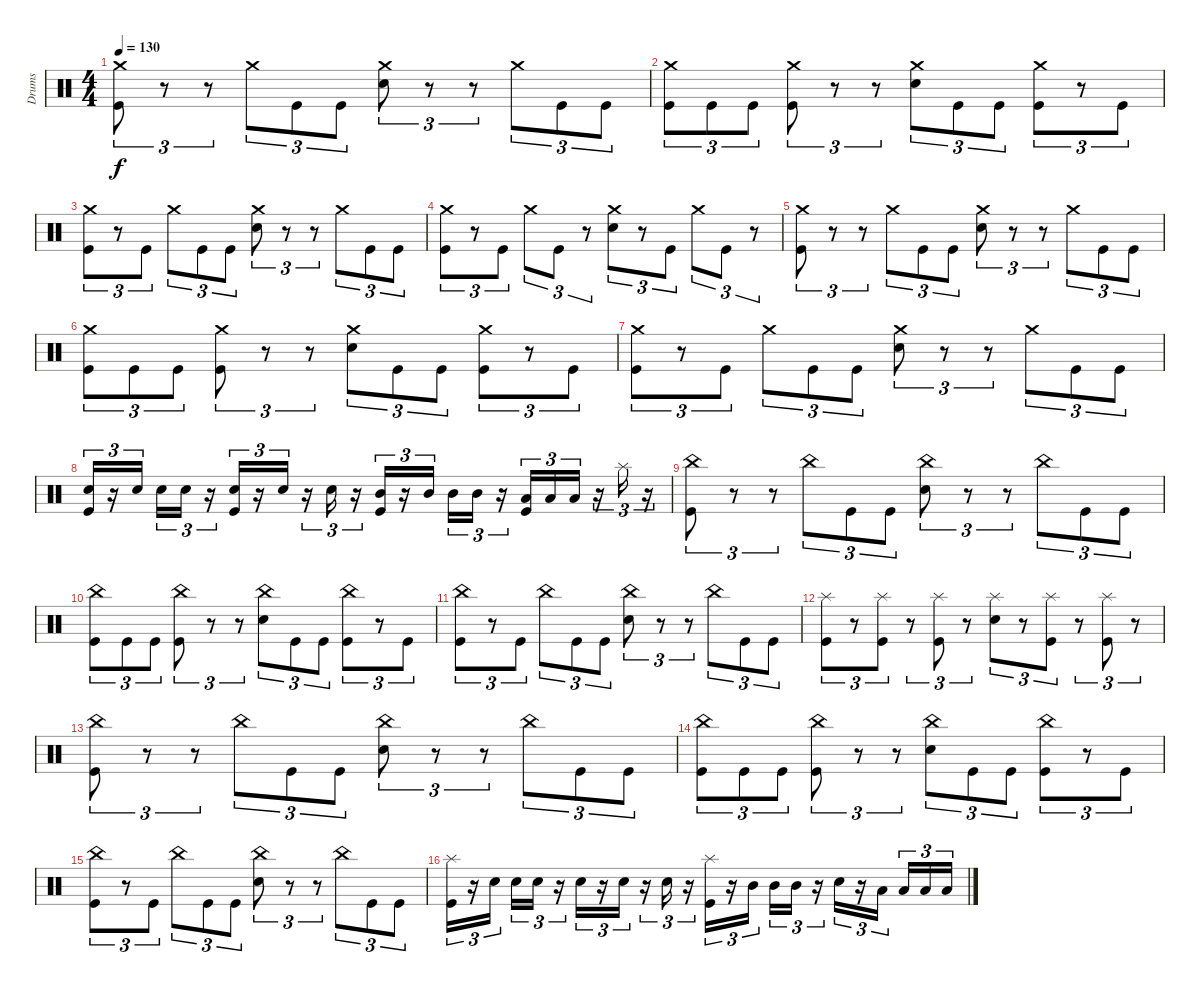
\track ("Drums" "Drums") {instrument percussion}
\staff {score}
\articulation defaults
\ts (4 4)
\tempo 130
\clef neutral
\ks c
("Crash medium (hit)" "Kick (hit)").8{tu (3 2) dy f volume 13} r.8{tu (3 2)} r.8{tu (3 2)} "Crash medium (hit)".8{tu (3 2)} "Kick (hit)".8{tu (3 2)} "Kick (hit)".8{tu (3 2)} ("Crash medium (hit)" "Electric Snare (hit)").8{tu (3 2)} r.8{tu (3 2)} r.8{tu (3 2)} "Crash medium (hit)".8{tu (3 2)} "Kick (hit)".8{tu (3 2)} "Kick (hit)".8{tu (3 2)} |
("Crash medium (hit)" "Kick (hit)").8{tu (3 2)} "Kick (hit)".8{tu (3 2)} "Kick (hit)".8{tu (3 2)} ("Crash medium (hit)" "Kick (hit)").8{tu (3 2)} r.8{tu (3 2)} r.8{tu (3 2)} ("Crash medium (hit)" "Electric Snare (hit)").8{tu (3 2)} "Kick (hit)".8{tu (3 2)} "Kick (hit)".8{tu (3 2)} ("Crash medium (hit)" "Kick (hit)").8{tu (3 2)} r.8{tu (3 2)} "Kick (hit)".8{tu (3 2)} |
("Crash medium (hit)" "Kick (hit)").8{tu (3 2)} r.8{tu (3 2)} "Kick (hit)".8{tu (3 2)} "Crash medium (hit)".8{tu (3 2)} "Kick (hit)".8{tu (3 2)} "Kick (hit)".8{tu (3 2)} ("Crash medium (hit)" "Electric Snare (hit)").8{tu (3 2)} r.8{tu (3 2)} r.8{tu (3 2)} "Crash medium (hit)".8{tu (3 2)} "Kick (hit)".8{tu (3 2)} "Kick (hit)".8{tu (3 2)} |
("Crash medium (hit)" "Kick (hit)").8{tu (3 2)} r.8{tu (3 2)} "Kick (hit)".8{tu (3 2)} "Crash medium (hit)".8{tu (3 2)} "Kick (hit)".8{tu (3 2)} r.8{tu (3 2)} ("Crash medium (hit)" "Electric Snare (hit)").8{tu (3 2)} r.8{tu (3 2)} "Kick (hit)".8{tu (3 2)} "Crash medium (hit)".8{tu (3 2)} "Kick (hit)".8{tu (3 2)} r.8{tu (3 2)} |
("Crash medium (hit)" "Kick (hit)").8{tu (3 2) volume 13} r.8{tu (3 2)} r.8{tu (3 2)} "Crash medium (hit)".8{tu (3 2)} "Kick (hit)".8{tu (3 2)} "Kick (hit)".8{tu (3 2)} ("Crash medium (hit)" "Electric Snare (hit)").8{tu (3 2)} r.8{tu (3 2)} r.8{tu (3 2)} "Crash medium (hit)".8{tu (3 2)} "Kick (hit)".8{tu (3 2)} "Kick (hit)".8{tu (3 2)} |
("Crash medium (hit)" "Kick (hit)").8{tu (3 2)} "Kick (hit)".8{tu (3 2)} "Kick (hit)".8{tu (3 2)} ("Crash medium (hit)" "Kick (hit)").8{tu (3 2)} r.8{tu (3 2)} r.8{tu (3 2)} ("Crash medium (hit)" "Electric Snare (hit)").8{tu (3 2)} "Kick (hit)".8{tu (3 2)} "Kick (hit)".8{tu (3 2)} ("Crash medium (hit)" "Kick (hit)").8{tu (3 2)} r.8{tu (3 2)} "Kick (hit)".8{tu (3 2)} |
("Crash medium (hit)" "Kick (hit)").8{tu (3 2)} r.8{tu (3 2)} "Kick (hit)".8{tu (3 2)} "Crash medium (hit)".8{tu (3 2)} "Kick (hit)".8{tu (3 2)} "Kick (hit)".8{tu (3 2)} ("Crash medium (hit)" "Electric Snare (hit)").8{tu (3 2)} r.8{tu (3 2)} r.8{tu (3 2)} "Crash medium (hit)".8{tu (3 2)} "Kick (hit)".8{tu (3 2)} "Kick (hit)".8{tu (3 2)} |
("Electric Snare (hit)" "Kick (hit)").16{tu (3 2)} r.16{tu (3 2)} "Electric Snare (hit)".16{tu (3 2) beam splitsecondary} "Electric Snare (hit)".16{tu (3 2)} "Electric Snare (hit)".16{tu (3 2)} r.16{tu (3 2)} ("Electric Snare (hit)" "Kick (hit)").16{tu (3 2)} r.16{tu (3 2)} "Electric Snare (hit)".16{tu (3 2)} r.16{tu (3 2)} "Electric Snare (hit)".16{tu (3 2)} r.16{tu (3 2)} ("Mid Tom (hit)" "Kick (hit)").16{tu (3 2)} r.16{tu (3 2)} "Mid Tom (hit)".16{tu (3 2) beam splitsecondary} "Mid Tom (hit)".16{tu (3 2)} "Mid Tom (hit)".16{tu (3 2)} r.16{tu (3 2)} ("Low Tom (hit)" "Kick (hit)").16{tu (3 2)} "Low Tom (hit)".16{tu (3 2)} "Low Tom (hit)".16{tu (3 2)} r.16{tu (3 2)} "Splash (hit)".16{tu (3 2)} r.16{tu (3 2)} |
("China (hit)" "Kick (hit)").8{tu (3 2) volume 13} r.8{tu (3 2)} r.8{tu (3 2)} "China (hit)".8{tu (3 2)} "Kick (hit)".8{tu (3 2)} "Kick (hit)".8{tu (3 2)} ("China (hit)" "Electric Snare (hit)").8{tu (3 2)} r.8{tu (3 2)} r.8{tu (3 2)} "China (hit)".8{tu (3 2)} "Kick (hit)".8{tu (3 2)} "Kick (hit)".8{tu (3 2)} |
("China (hit)" "Kick (hit)").8{tu (3 2)} "Kick (hit)".8{tu (3 2)} "Kick (hit)".8{tu (3 2)} ("China (hit)" "Kick (hit)").8{tu (3 2)} r.8{tu (3 2)} r.8{tu (3 2)} ("China (hit)" "Electric Snare (hit)").8{tu (3 2)} "Kick (hit)".8{tu (3 2)} "Kick (hit)".8{tu (3 2)} ("China (hit)" "Kick (hit)").8{tu (3 2)} r.8{tu (3 2)} "Kick (hit)".8{tu (3 2)} |
("China (hit)" "Kick (hit)").8{tu (3 2)} r.8{tu (3 2)} "Kick (hit)".8{tu (3 2)} "China (hit)".8{tu (3 2)} "Kick (hit)".8{tu (3 2)} "Kick (hit)".8{tu (3 2)} ("China (hit)" "Electric Snare (hit)").8{tu (3 2)} r.8{tu (3 2)} r.8{tu (3 2)} "China (hit)".8{tu (3 2)} "Kick (hit)".8{tu (3 2)} "Kick (hit)".8{tu (3 2)} |
("Splash (hit)" "Kick (hit)").8{tu (3 2)} r.8{tu (3 2)} ("Splash (hit)" "Kick (hit)").8{tu (3 2)} r.8{tu (3 2)} ("Splash (hit)" "Kick (hit)").8{tu (3 2)} r.8{tu (3 2)} ("Splash (hit)" "Electric Snare (hit)").8{tu (3 2)} r.8{tu (3 2)} ("Splash (hit)" "Kick (hit)").8{tu (3 2)} r.8{tu (3 2)} ("Splash (hit)" "Kick (hit)").8{tu (3 2)} r.8{tu (3 2)} |
("China (hit)" "Kick (hit)").8{tu (3 2) volume 13} r.8{tu (3 2)} r.8{tu (3 2)} "China (hit)".8{tu (3 2)} "Kick (hit)".8{tu (3 2)} "Kick (hit)".8{tu (3 2)} ("China (hit)" "Electric Snare (hit)").8{tu (3 2)} r.8{tu (3 2)} r.8{tu (3 2)} "China (hit)".8{tu (3 2)} "Kick (hit)".8{tu (3 2)} "Kick (hit)".8{tu (3 2)} |
("China (hit)" "Kick (hit)").8{tu (3 2)} "Kick (hit)".8{tu (3 2)} "Kick (hit)".8{tu (3 2)} ("China (hit)" "Kick (hit)").8{tu (3 2)} r.8{tu (3 2)} r.8{tu (3 2)} ("China (hit)" "Electric Snare (hit)").8{tu (3 2)} "Kick (hit)".8{tu (3 2)} "Kick (hit)".8{tu (3 2)} ("China (hit)" "Kick (hit)").8{tu (3 2)} r.8{tu (3 2)} "Kick (hit)".8{tu (3 2)} |
("China (hit)" "Kick (hit)").8{tu (3 2)} r.8{tu (3 2)} "Kick (hit)".8{tu (3 2)} "China (hit)".8{tu (3 2)} "Kick (hit)".8{tu (3 2)} "Kick (hit)".8{tu (3 2)} ("China (hit)" "Electric Snare (hit)").8{tu (3 2)} r.8{tu (3 2)} r.8{tu (3 2)} "China (hit)".8{tu (3 2)} "Kick (hit)".8{tu (3 2)} "Kick (hit)".8{tu (3 2)} |
("Splash (hit)" "Kick (hit)").16{tu (3 2)} r.16{tu (3 2)} "Electric Snare (hit)".16{tu (3 2) beam splitsecondary} "Electric Snare (hit)".16{tu (3 2)} "Electric Snare (hit)".16{tu (3 2)} r.16{tu (3 2)} "Electric Snare (hit)".16{tu (3 2)} r.16{tu (3 2)} "Electric Snare (hit)".16{tu (3 2)} r.16{tu (3 2)} "Electric Snare (hit)".16{tu (3 2)} r.16{tu (3 2)} ("Kick (hit)" "Splash (hit)").16{tu (3 2)} r.16{tu (3 2)} "Mid Tom (hit)".16{tu (3 2) beam splitsecondary} "Mid Tom (hit)".16{tu (3 2)} "Mid Tom (hit)".16{tu (3 2)} r.16{tu (3 2)} "Electric Snare (hit)".16{tu (3 2)} r.16{tu (3 2)} "Low Tom (hit)".16{tu (3 2) beam splitsecondary} "Low Tom (hit)".16{tu (3 2)} "Low Tom (hit)".16{tu (3 2)} "Low Tom (hit)".16{tu (3 2)}
